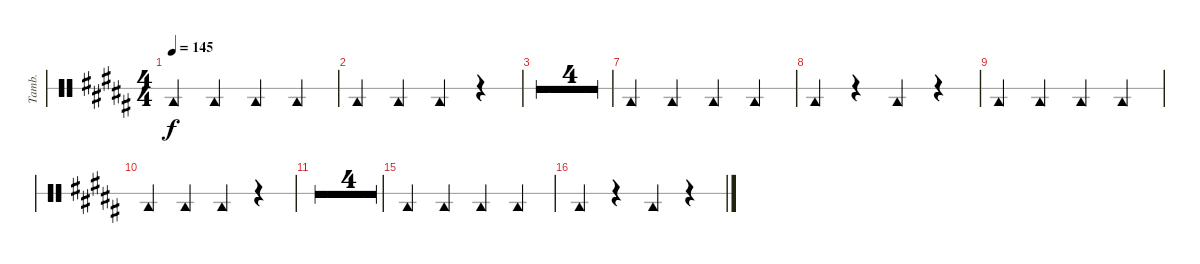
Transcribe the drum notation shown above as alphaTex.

\defaultSystemsLayout 4
\bracketExtendMode groupsimilarinstruments
\otherSystemsTrackNameOrientation horizontal
\track ("Tambourine" "Tamb.") {multiBarRest instrument percussion}
\staff {score 1}
\articulation defaults
\ts (4 4)
\tempo 145
\clef neutral
\ks b "Tambourine (hit)"{acc forcenatural}.4{dy f} "Tambourine (hit)"{acc forcenatural}.4 "Tambourine (hit)"{acc forcenatural}.4 "Tambourine (hit)"{acc forcenatural}.4
|
"Tambourine (hit)"{acc forcenatural}.4 "Tambourine (hit)"{acc forcenatural}.4 "Tambourine (hit)"{acc forcenatural}.4 r.4 |
\simile firstofdouble
|
\simile secondofdouble
|
\simile firstofdouble
|
\simile secondofdouble
|
\simile none "Tambourine (hit)"{acc forcenatural}.4 "Tambourine (hit)"{acc forcenatural}.4 "Tambourine (hit)"{acc forcenatural}.4 "Tambourine (hit)"{acc forcenatural}.4
|
"Tambourine (hit)"{acc forcenatural}.4 r.4 "Tambourine (hit)"{acc forcenatural}.4 r.4 |
"Tambourine (hit)"{acc forcenatural}.4 "Tambourine (hit)"{acc forcenatural}.4 "Tambourine (hit)"{acc forcenatural}.4 "Tambourine (hit)"{acc forcenatural}.4 |
"Tambourine (hit)"{acc forcenatural}.4 "Tambourine (hit)"{acc forcenatural}.4 "Tambourine (hit)"{acc forcenatural}.4 r.4 |
\simile firstofdouble
|
\simile secondofdouble
|
\simile firstofdouble
|
\simile secondofdouble
|
\simile none "Tambourine (hit)"{acc forcenatural}.4 "Tambourine (hit)"{acc forcenatural}.4 "Tambourine (hit)"{acc forcenatural}.4 "Tambourine (hit)"{acc forcenatural}.4
|
"Tambourine (hit)"{acc forcenatural}.4 r.4 "Tambourine (hit)"{acc forcenatural}.4 r.4
